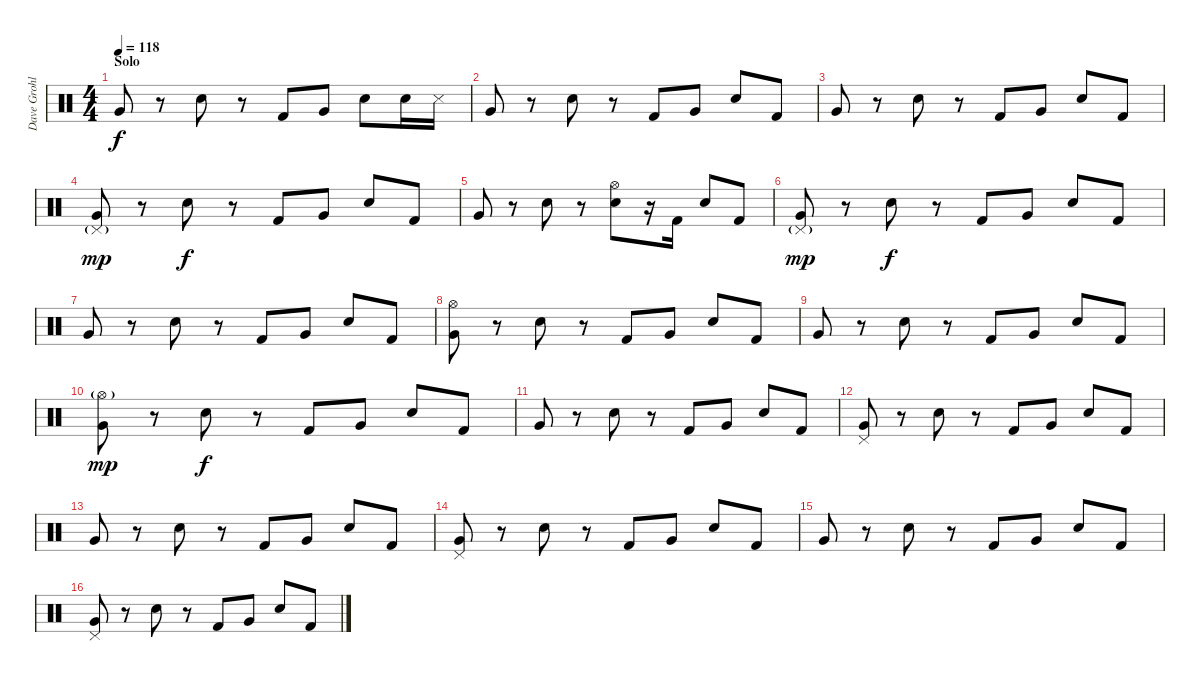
\track ("Dave Grohl - Drums" "Dave Grohl") {instrument percussion}
\staff {score}
\articulation defaults
\ts (4 4)
\section ("" "Solo")
\tempo 118
\clef neutral
\ks c "Very Low Tom (hit)".8{dy f}
r.8 "Electric Snare (hit)".8 r.8 "Kick (hit) 2".8 "Very Low Tom (hit)".8 "Electric Snare (hit)".8 "Electric Snare (hit)".16 "Snare (side stick) 3".16 |
"Very Low Tom (hit)".8 r.8 "Electric Snare (hit)".8 r.8 "Kick (hit) 2".8 "Very Low Tom (hit)".8 "Electric Snare (hit)".8 "Kick (hit) 2".8 |
"Very Low Tom (hit)".8 r.8 "Electric Snare (hit)".8 r.8 "Kick (hit) 2".8 "Very Low Tom (hit)".8 "Electric Snare (hit)".8 "Kick (hit) 2".8 |
("Pedal Hi-Hat (hit)"{g} "Very Low Tom (hit)").8{dy mp} r.8 "Electric Snare (hit)".8{dy f} r.8 "Kick (hit) 2".8 "Very Low Tom (hit)".8 "Electric Snare (hit)".8 "Kick (hit) 2".8 |
"Very Low Tom (hit)".8 r.8 "Electric Snare (hit)".8 r.8 ("Hi-Hat (open)" "Electric Snare (hit)").8 r.16 "Kick (hit) 2".16 "Electric Snare (hit)".8 "Kick (hit) 2".8 |
("Pedal Hi-Hat (hit)"{g} "Very Low Tom (hit)").8{dy mp} r.8 "Electric Snare (hit)".8{dy f} r.8 "Kick (hit) 2".8 "Very Low Tom (hit)".8 "Electric Snare (hit)".8 "Kick (hit) 2".8 |
"Very Low Tom (hit)".8 r.8 "Electric Snare (hit)".8 r.8 "Kick (hit) 2".8 "Very Low Tom (hit)".8 "Electric Snare (hit)".8 "Kick (hit) 2".8 |
("Hi-Hat (open)" "Very Low Tom (hit)").8 r.8 "Electric Snare (hit)".8 r.8 "Kick (hit) 2".8 "Very Low Tom (hit)".8 "Electric Snare (hit)".8 "Kick (hit) 2".8 |
"Very Low Tom (hit)".8 r.8 "Electric Snare (hit)".8 r.8 "Kick (hit) 2".8 "Very Low Tom (hit)".8 "Electric Snare (hit)".8 "Kick (hit) 2".8 |
("Hi-Hat (open)"{g} "Very Low Tom (hit)").8{dy mp} r.8 "Electric Snare (hit)".8{dy f} r.8 "Kick (hit) 2".8 "Very Low Tom (hit)".8 "Electric Snare (hit)".8 "Kick (hit) 2".8 |
"Very Low Tom (hit)".8 r.8 "Electric Snare (hit)".8 r.8 "Kick (hit) 2".8 "Very Low Tom (hit)".8 "Electric Snare (hit)".8 "Kick (hit) 2".8 |
("Pedal Hi-Hat (hit)" "Very Low Tom (hit)").8 r.8 "Electric Snare (hit)".8 r.8 "Kick (hit) 2".8 "Very Low Tom (hit)".8 "Electric Snare (hit)".8 "Kick (hit) 2".8 |
"Very Low Tom (hit)".8 r.8 "Electric Snare (hit)".8 r.8 "Kick (hit) 2".8 "Very Low Tom (hit)".8 "Electric Snare (hit)".8 "Kick (hit) 2".8 |
("Pedal Hi-Hat (hit)" "Very Low Tom (hit)").8 r.8 "Electric Snare (hit)".8 r.8 "Kick (hit) 2".8 "Very Low Tom (hit)".8 "Electric Snare (hit)".8 "Kick (hit) 2".8 |
"Very Low Tom (hit)".8 r.8 "Electric Snare (hit)".8 r.8 "Kick (hit) 2".8 "Very Low Tom (hit)".8 "Electric Snare (hit)".8 "Kick (hit) 2".8 |
("Pedal Hi-Hat (hit)" "Very Low Tom (hit)").8 r.8 "Electric Snare (hit)".8 r.8 "Kick (hit) 2".8 "Very Low Tom (hit)".8 "Electric Snare (hit)".8 "Kick (hit) 2".8
